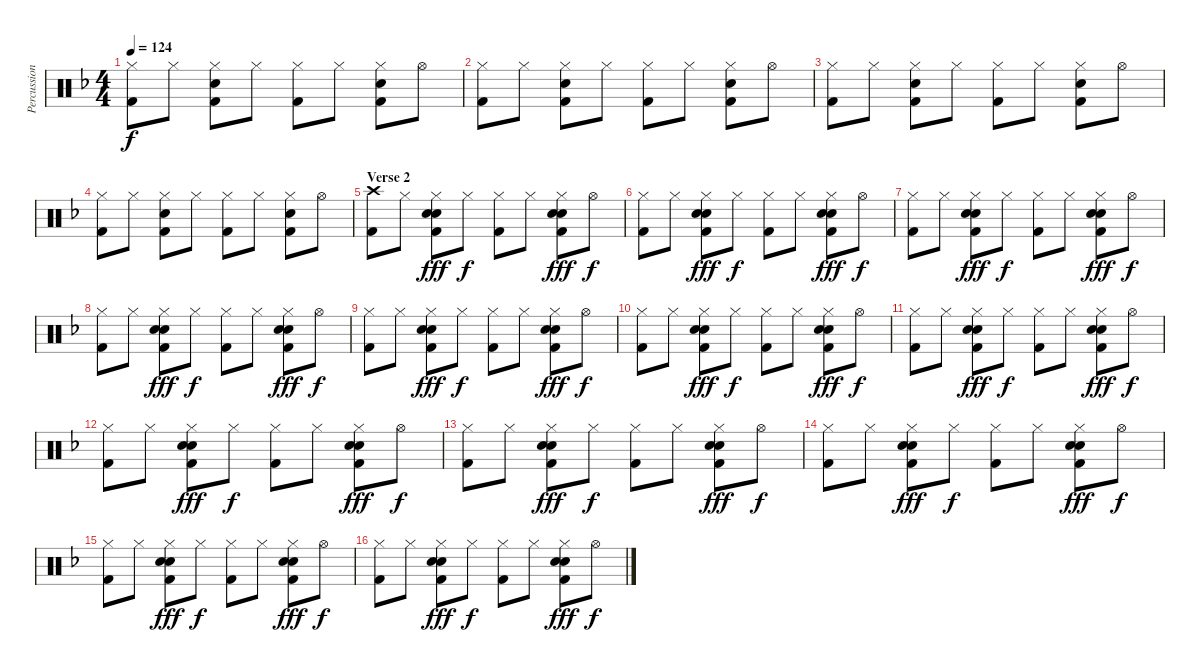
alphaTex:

\track ("Percussion" "Percussion") {instrument percussion}
\staff {score}
\articulation defaults
\ts (4 4)
\tempo 124
\clef neutral
\ks f
("Hi-Hat (closed)" "Kick (hit) 2").8{dy f} "Hi-Hat (closed)".8 ("Hi-Hat (closed)" "Electric Snare (hit)" "Kick (hit) 2").8 "Hi-Hat (closed)".8 ("Hi-Hat (closed)" "Kick (hit) 2").8 "Hi-Hat (closed)".8 ("Hi-Hat (closed)" "Electric Snare (hit)" "Kick (hit) 2").8 "Hi-Hat (open)".8 |
("Hi-Hat (closed)" "Kick (hit) 2").8 "Hi-Hat (closed)".8 ("Hi-Hat (closed)" "Electric Snare (hit)" "Kick (hit) 2").8 "Hi-Hat (closed)".8 ("Hi-Hat (closed)" "Kick (hit) 2").8 "Hi-Hat (closed)".8 ("Hi-Hat (closed)" "Electric Snare (hit)" "Kick (hit) 2").8 "Hi-Hat (open)".8 |
("Hi-Hat (closed)" "Kick (hit) 2").8 "Hi-Hat (closed)".8 ("Hi-Hat (closed)" "Electric Snare (hit)" "Kick (hit) 2").8 "Hi-Hat (closed)".8 ("Hi-Hat (closed)" "Kick (hit) 2").8 "Hi-Hat (closed)".8 ("Hi-Hat (closed)" "Electric Snare (hit)" "Kick (hit) 2").8 "Hi-Hat (open)".8 |
("Hi-Hat (closed)" "Kick (hit) 2").8 "Hi-Hat (closed)".8 ("Hi-Hat (closed)" "Electric Snare (hit)" "Kick (hit) 2").8 "Hi-Hat (closed)".8 ("Hi-Hat (closed)" "Kick (hit) 2").8 "Hi-Hat (closed)".8 ("Hi-Hat (closed)" "Electric Snare (hit)" "Kick (hit) 2").8 "Hi-Hat (open)".8 |
\section ("" "Verse 2")
("Crash high (hit)" "Kick (hit) 2").8 "Hi-Hat (closed)".8 ("Hi-Hat (closed)" "Hand Clap (hit)" "Electric Snare (hit)" "Kick (hit) 2").8{dy fff} "Hi-Hat (closed)".8{dy f} ("Hi-Hat (closed)" "Kick (hit) 2").8 "Hi-Hat (closed)".8 ("Hi-Hat (closed)" "Hand Clap (hit)" "Electric Snare (hit)" "Kick (hit) 2").8{dy fff} "Hi-Hat (open)".8{dy f} |
("Hi-Hat (closed)" "Kick (hit) 2").8 "Hi-Hat (closed)".8 ("Hi-Hat (closed)" "Hand Clap (hit)" "Electric Snare (hit)" "Kick (hit) 2").8{dy fff} "Hi-Hat (closed)".8{dy f} ("Hi-Hat (closed)" "Kick (hit) 2").8 "Hi-Hat (closed)".8 ("Hi-Hat (closed)" "Hand Clap (hit)" "Electric Snare (hit)" "Kick (hit) 2").8{dy fff} "Hi-Hat (open)".8{dy f} |
("Hi-Hat (closed)" "Kick (hit) 2").8 "Hi-Hat (closed)".8 ("Hi-Hat (closed)" "Hand Clap (hit)" "Electric Snare (hit)" "Kick (hit) 2").8{dy fff} "Hi-Hat (closed)".8{dy f} ("Hi-Hat (closed)" "Kick (hit) 2").8 "Hi-Hat (closed)".8 ("Hi-Hat (closed)" "Hand Clap (hit)" "Electric Snare (hit)" "Kick (hit) 2").8{dy fff} "Hi-Hat (open)".8{dy f} |
("Hi-Hat (closed)" "Kick (hit) 2").8 "Hi-Hat (closed)".8 ("Hi-Hat (closed)" "Hand Clap (hit)" "Electric Snare (hit)" "Kick (hit) 2").8{dy fff} "Hi-Hat (closed)".8{dy f} ("Hi-Hat (closed)" "Kick (hit) 2").8 "Hi-Hat (closed)".8 ("Hi-Hat (closed)" "Hand Clap (hit)" "Electric Snare (hit)" "Kick (hit) 2").8{dy fff} "Hi-Hat (open)".8{dy f} |
("Hi-Hat (closed)" "Kick (hit) 2").8 "Hi-Hat (closed)".8 ("Hi-Hat (closed)" "Hand Clap (hit)" "Electric Snare (hit)" "Kick (hit) 2").8{dy fff} "Hi-Hat (closed)".8{dy f} ("Hi-Hat (closed)" "Kick (hit) 2").8 "Hi-Hat (closed)".8 ("Hi-Hat (closed)" "Hand Clap (hit)" "Electric Snare (hit)" "Kick (hit) 2").8{dy fff} "Hi-Hat (open)".8{dy f} |
("Hi-Hat (closed)" "Kick (hit) 2").8 "Hi-Hat (closed)".8 ("Hi-Hat (closed)" "Hand Clap (hit)" "Electric Snare (hit)" "Kick (hit) 2").8{dy fff} "Hi-Hat (closed)".8{dy f} ("Hi-Hat (closed)" "Kick (hit) 2").8 "Hi-Hat (closed)".8 ("Hi-Hat (closed)" "Hand Clap (hit)" "Electric Snare (hit)" "Kick (hit) 2").8{dy fff} "Hi-Hat (open)".8{dy f} |
("Hi-Hat (closed)" "Kick (hit) 2").8 "Hi-Hat (closed)".8 ("Hi-Hat (closed)" "Hand Clap (hit)" "Electric Snare (hit)" "Kick (hit) 2").8{dy fff} "Hi-Hat (closed)".8{dy f} ("Hi-Hat (closed)" "Kick (hit) 2").8 "Hi-Hat (closed)".8 ("Hi-Hat (closed)" "Hand Clap (hit)" "Electric Snare (hit)" "Kick (hit) 2").8{dy fff} "Hi-Hat (open)".8{dy f} |
("Hi-Hat (closed)" "Kick (hit) 2").8 "Hi-Hat (closed)".8 ("Hi-Hat (closed)" "Hand Clap (hit)" "Electric Snare (hit)" "Kick (hit) 2").8{dy fff} "Hi-Hat (closed)".8{dy f} ("Hi-Hat (closed)" "Kick (hit) 2").8 "Hi-Hat (closed)".8 ("Hi-Hat (closed)" "Hand Clap (hit)" "Electric Snare (hit)" "Kick (hit) 2").8{dy fff} "Hi-Hat (open)".8{dy f} |
("Hi-Hat (closed)" "Kick (hit) 2").8 "Hi-Hat (closed)".8 ("Hi-Hat (closed)" "Hand Clap (hit)" "Electric Snare (hit)" "Kick (hit) 2").8{dy fff} "Hi-Hat (closed)".8{dy f} ("Hi-Hat (closed)" "Kick (hit) 2").8 "Hi-Hat (closed)".8 ("Hi-Hat (closed)" "Hand Clap (hit)" "Electric Snare (hit)" "Kick (hit) 2").8{dy fff} "Hi-Hat (open)".8{dy f} |
("Hi-Hat (closed)" "Kick (hit) 2").8 "Hi-Hat (closed)".8 ("Hi-Hat (closed)" "Hand Clap (hit)" "Electric Snare (hit)" "Kick (hit) 2").8{dy fff} "Hi-Hat (closed)".8{dy f} ("Hi-Hat (closed)" "Kick (hit) 2").8 "Hi-Hat (closed)".8 ("Hi-Hat (closed)" "Hand Clap (hit)" "Electric Snare (hit)" "Kick (hit) 2").8{dy fff} "Hi-Hat (open)".8{dy f} |
("Hi-Hat (closed)" "Kick (hit) 2").8 "Hi-Hat (closed)".8 ("Hi-Hat (closed)" "Hand Clap (hit)" "Electric Snare (hit)" "Kick (hit) 2").8{dy fff} "Hi-Hat (closed)".8{dy f} ("Hi-Hat (closed)" "Kick (hit) 2").8 "Hi-Hat (closed)".8 ("Hi-Hat (closed)" "Hand Clap (hit)" "Electric Snare (hit)" "Kick (hit) 2").8{dy fff} "Hi-Hat (open)".8{dy f} |
("Hi-Hat (closed)" "Kick (hit) 2").8 "Hi-Hat (closed)".8 ("Hi-Hat (closed)" "Hand Clap (hit)" "Electric Snare (hit)" "Kick (hit) 2").8{dy fff} "Hi-Hat (closed)".8{dy f} ("Hi-Hat (closed)" "Kick (hit) 2").8 "Hi-Hat (closed)".8 ("Hi-Hat (closed)" "Hand Clap (hit)" "Electric Snare (hit)" "Kick (hit) 2").8{dy fff} "Hi-Hat (open)".8{dy f}
